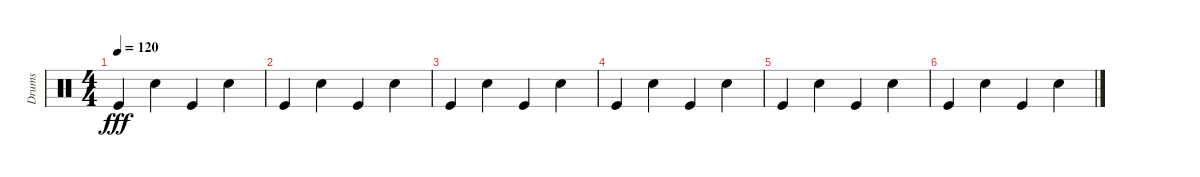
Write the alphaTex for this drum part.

\track ("Drums" "Drums") {instrument percussion}
\staff {score}
\articulation defaults
\ts (4 4)
\tempo 120
\clef neutral
\ks c "Kick (hit)".4{dy fff} "Snare (hit) 2".4 "Kick (hit)".4 "Snare (hit) 2".4
|
"Kick (hit)".4 "Snare (hit) 2".4 "Kick (hit)".4 "Snare (hit) 2".4 |
"Kick (hit)".4 "Snare (hit) 2".4 "Kick (hit)".4 "Snare (hit) 2".4 |
"Kick (hit)".4 "Snare (hit) 2".4 "Kick (hit)".4 "Snare (hit) 2".4 |
"Kick (hit)".4 "Snare (hit) 2".4 "Kick (hit)".4 "Snare (hit) 2".4 |
"Kick (hit)".4 "Snare (hit) 2".4 "Kick (hit)".4 "Snare (hit) 2".4
